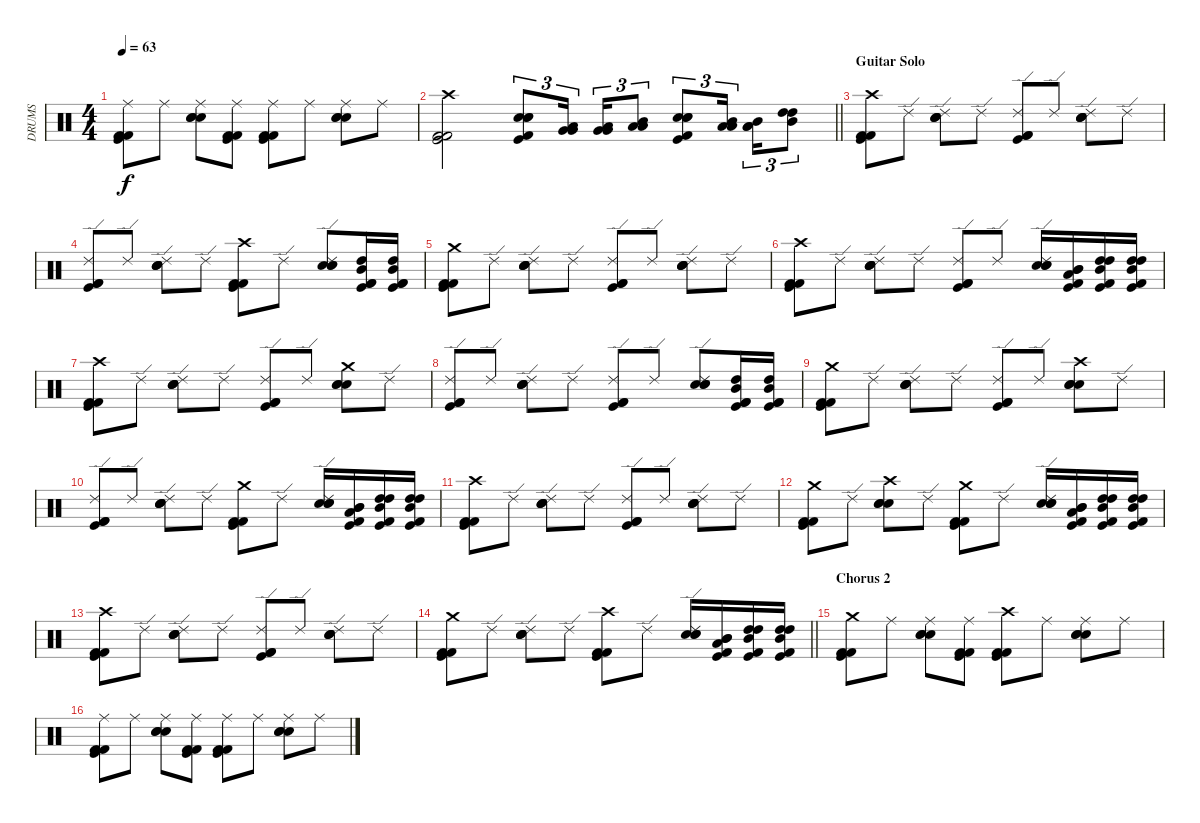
\track ("DRUMS" "DRUMS") {instrument percussion}
\staff {score}
\articulation defaults
\ts (4 4)
\tempo 63
\clef neutral
\ks c
("Ride (middle)" "Kick (hit) 2" "Kick (hit)" "Kick (hit) 2").8{dy f} "Ride (middle)".8 ("Ride (middle)" "Electric Snare (hit)" "Snare (hit) 2" "Electric Snare (hit)").8 ("Ride (middle)" "Kick (hit) 2" "Kick (hit)" "Kick (hit) 2").8 ("Ride (middle)" "Kick (hit) 2" "Kick (hit)" "Kick (hit) 2").8 "Ride (middle)".8 ("Ride (middle)" "Electric Snare (hit)" "Snare (hit) 2" "Electric Snare (hit)").8 "Ride (middle)".8 |
\barLineRight lightlight
("Crash high (hit)" "Kick (hit) 2" "Kick (hit)" "Kick (hit) 2").2 ("Electric Snare (hit)" "Snare (hit) 2" "Electric Snare (hit)" "Kick (hit)" "Kick (hit) 2").8{tu (3 2) volume 10} ("Very Low Tom (hit)" "Very Low Tom (hit)" "Low Tom (hit)").16{tu (3 2) balance 2 beam splitsecondary} ("Very Low Tom (hit)" "Very Low Tom (hit)" "Low Tom (hit)").16{tu (3 2) balance 4} ("Low Tom (hit)" "Low Tom (hit)" "Mid Tom (hit)").8{tu (3 2) balance 6} ("Electric Snare (hit)" "Snare (hit) 2" "Electric Snare (hit)" "Kick (hit)" "Kick (hit) 2").8{tu (3 2) balance 8} ("Low Tom (hit)" "Low Tom (hit)" "Mid Tom (hit)").16{tu (3 2) balance 10 beam splitsecondary} ("Low Tom (hit)" "Low Tom (hit)" "Mid Tom (hit)").16{tu (3 2) balance 12} ("Mid Tom (hit)" "High Tom (hit)" "High Tom (hit)").8{tu (3 2) balance 14} |
\section ("" "Guitar Solo")
("Crash high (hit)" "Kick (hit) 2" "Kick (hit)" "Kick (hit) 2").8{volume 8 balance 8} "Ride (edge) 2".8 ("Ride (edge) 2" "Electric Snare (hit)" "Snare (hit) 2" "Electric Snare (hit)").8 "Ride (edge) 2".8 ("Ride (edge) 2" "Kick (hit) 2" "Kick (hit)" "Kick (hit) 2").8 "Ride (edge) 2".8 ("Ride (edge) 2" "Electric Snare (hit)" "Snare (hit) 2" "Electric Snare (hit)").8 "Ride (edge) 2".8 |
("Ride (edge) 2" "Kick (hit) 2" "Kick (hit)" "Kick (hit) 2").8 "Ride (edge) 2".8 ("Ride (edge) 2" "Electric Snare (hit)" "Snare (hit) 2" "Electric Snare (hit)").8 "Ride (edge) 2".8 ("Crash high (hit)" "Kick (hit) 2" "Kick (hit)" "Kick (hit) 2").8 "Ride (edge) 2".8 ("Ride (edge) 2" "Electric Snare (hit)" "Snare (hit) 2" "Electric Snare (hit)").8 ("Mid Tom (hit)" "High Tom (hit)" "Kick (hit) 2" "Kick (hit)" "Kick (hit) 2").16{volume 10 balance 4} ("Mid Tom (hit)" "High Tom (hit)" "Kick (hit) 2" "Kick (hit)" "Kick (hit) 2").16{balance 12} |
("Crash medium (hit)" "Kick (hit) 2" "Kick (hit)" "Kick (hit) 2").8{volume 8 balance 8} "Ride (edge) 2".8 ("Ride (edge) 2" "Electric Snare (hit)" "Snare (hit) 2" "Electric Snare (hit)").8 "Ride (edge) 2".8 ("Ride (edge) 2" "Kick (hit) 2" "Kick (hit)" "Kick (hit) 2").8 "Ride (edge) 2".8 ("Ride (edge) 2" "Electric Snare (hit)" "Snare (hit) 2" "Electric Snare (hit)").8 "Ride (edge) 2".8 |
("Crash high (hit)" "Kick (hit) 2" "Kick (hit)" "Kick (hit) 2").8 "Ride (edge) 2".8 ("Ride (edge) 2" "Electric Snare (hit)" "Snare (hit) 2" "Electric Snare (hit)").8 "Ride (edge) 2".8 ("Ride (edge) 2" "Kick (hit) 2" "Kick (hit)" "Kick (hit) 2").8 "Ride (edge) 2".8 ("Ride (edge) 2" "Electric Snare (hit)" "Snare (hit) 2" "Electric Snare (hit)").16 ("Kick (hit)" "Low Tom (hit)" "Mid Tom (hit)" "Mid Tom (hit)" "Kick (hit) 2").16{volume 10 balance 4} ("Kick (hit)" "Mid Tom (hit)" "High Tom (hit)" "High Tom (hit)" "Kick (hit) 2").16{balance 8} ("Kick (hit)" "Mid Tom (hit)" "High Tom (hit)" "High Tom (hit)" "Kick (hit) 2").16{balance 12} |
("Crash high (hit)" "Kick (hit) 2" "Kick (hit)" "Kick (hit) 2").8{volume 8 balance 8} "Ride (edge) 2".8 ("Ride (edge) 2" "Electric Snare (hit)" "Snare (hit) 2" "Electric Snare (hit)").8 "Ride (edge) 2".8 ("Ride (edge) 2" "Kick (hit) 2" "Kick (hit)" "Kick (hit) 2").8 "Ride (edge) 2".8 ("Crash medium (hit)" "Electric Snare (hit)" "Snare (hit) 2" "Electric Snare (hit)").8 "Ride (edge) 2".8 |
("Ride (edge) 2" "Kick (hit) 2" "Kick (hit)" "Kick (hit) 2").8 "Ride (edge) 2".8 ("Ride (edge) 2" "Electric Snare (hit)" "Snare (hit) 2" "Electric Snare (hit)").8 "Ride (edge) 2".8 ("Ride (edge) 2" "Kick (hit) 2" "Kick (hit)" "Kick (hit) 2").8 "Ride (edge) 2".8 ("Ride (edge) 2" "Electric Snare (hit)" "Snare (hit) 2" "Electric Snare (hit)").8 ("Mid Tom (hit)" "High Tom (hit)" "Kick (hit) 2" "Kick (hit)" "Kick (hit) 2").16{volume 10 balance 4} ("Mid Tom (hit)" "High Tom (hit)" "Kick (hit) 2" "Kick (hit)" "Kick (hit) 2").16{balance 12} |
("Crash medium (hit)" "Kick (hit) 2" "Kick (hit)" "Kick (hit) 2").8{volume 8 balance 8} "Ride (edge) 2".8 ("Ride (edge) 2" "Electric Snare (hit)" "Snare (hit) 2" "Electric Snare (hit)").8 "Ride (edge) 2".8 ("Ride (edge) 2" "Kick (hit) 2" "Kick (hit)" "Kick (hit) 2").8 "Ride (edge) 2".8 ("Crash high (hit)" "Electric Snare (hit)" "Snare (hit) 2" "Electric Snare (hit)").8 "Ride (edge) 2".8 |
("Ride (edge) 2" "Kick (hit) 2" "Kick (hit)" "Kick (hit) 2").8 "Ride (edge) 2".8 ("Ride (edge) 2" "Electric Snare (hit)" "Snare (hit) 2" "Electric Snare (hit)").8 "Ride (edge) 2".8 ("Crash medium (hit)" "Kick (hit) 2" "Kick (hit)" "Kick (hit) 2").8 "Ride (edge) 2".8 ("Ride (edge) 2" "Electric Snare (hit)" "Snare (hit) 2" "Electric Snare (hit)").16 ("Kick (hit)" "Low Tom (hit)" "Mid Tom (hit)" "Mid Tom (hit)" "Kick (hit) 2").16{volume 10 balance 4} ("Kick (hit)" "Mid Tom (hit)" "High Tom (hit)" "High Tom (hit)" "Kick (hit) 2").16{balance 8} ("Kick (hit)" "Mid Tom (hit)" "High Tom (hit)" "High Tom (hit)" "Kick (hit) 2").16{balance 12} |
("Crash high (hit)" "Kick (hit) 2" "Kick (hit)" "Kick (hit) 2").8{volume 8 balance 8} "Ride (edge) 2".8 ("Ride (edge) 2" "Electric Snare (hit)" "Snare (hit) 2" "Electric Snare (hit)").8 "Ride (edge) 2".8 ("Ride (edge) 2" "Kick (hit) 2" "Kick (hit)" "Kick (hit) 2").8 "Ride (edge) 2".8 ("Ride (edge) 2" "Electric Snare (hit)" "Snare (hit) 2" "Electric Snare (hit)").8 "Ride (edge) 2".8 |
("Crash medium (hit)" "Kick (hit) 2" "Kick (hit)" "Kick (hit) 2").8 "Ride (edge) 2".8 ("Crash high (hit)" "Electric Snare (hit)" "Snare (hit) 2" "Electric Snare (hit)").8 "Ride (edge) 2".8 ("Crash medium (hit)" "Kick (hit) 2" "Kick (hit)" "Kick (hit) 2").8 "Ride (edge) 2".8 ("Ride (edge) 2" "Electric Snare (hit)" "Snare (hit) 2" "Electric Snare (hit)").16 ("Kick (hit)" "Low Tom (hit)" "Mid Tom (hit)" "Mid Tom (hit)" "Kick (hit) 2").16{volume 10 balance 4} ("Kick (hit)" "Mid Tom (hit)" "High Tom (hit)" "High Tom (hit)" "Kick (hit) 2").16{balance 8} ("Kick (hit)" "Mid Tom (hit)" "High Tom (hit)" "High Tom (hit)" "Kick (hit) 2").16{balance 12} |
("Crash high (hit)" "Kick (hit) 2" "Kick (hit)" "Kick (hit) 2").8{volume 8 balance 8} "Ride (edge) 2".8 ("Ride (edge) 2" "Electric Snare (hit)" "Snare (hit) 2" "Electric Snare (hit)").8 "Ride (edge) 2".8 ("Ride (edge) 2" "Kick (hit) 2" "Kick (hit)" "Kick (hit) 2").8 "Ride (edge) 2".8 ("Ride (edge) 2" "Electric Snare (hit)" "Snare (hit) 2" "Electric Snare (hit)").8 "Ride (edge) 2".8 |
\barLineRight lightlight
("Crash medium (hit)" "Kick (hit) 2" "Kick (hit)" "Kick (hit) 2").8 "Ride (edge) 2".8 ("Ride (edge) 2" "Electric Snare (hit)" "Snare (hit) 2" "Electric Snare (hit)").8 "Ride (edge) 2".8 ("Crash high (hit)" "Kick (hit) 2" "Kick (hit)" "Kick (hit) 2").8 "Ride (edge) 2".8 ("Ride (edge) 2" "Electric Snare (hit)" "Snare (hit) 2" "Electric Snare (hit)").16 ("Kick (hit)" "Low Tom (hit)" "Mid Tom (hit)" "Mid Tom (hit)" "Kick (hit) 2").16{volume 10 balance 4} ("Kick (hit)" "Mid Tom (hit)" "High Tom (hit)" "High Tom (hit)" "Kick (hit) 2").16{balance 8} ("Kick (hit)" "Mid Tom (hit)" "High Tom (hit)" "High Tom (hit)" "Kick (hit) 2").16{balance 12} |
\section ("" "Chorus 2")
("Crash medium (hit)" "Kick (hit) 2" "Kick (hit)" "Kick (hit) 2").8{volume 8 balance 8} "Ride (middle)".8 ("Ride (middle)" "Electric Snare (hit)" "Snare (hit) 2" "Electric Snare (hit)").8 ("Ride (middle)" "Kick (hit) 2" "Kick (hit)" "Kick (hit) 2").8 ("Crash high (hit)" "Kick (hit) 2" "Kick (hit)" "Kick (hit) 2").8 "Ride (middle)".8 ("Ride (middle)" "Electric Snare (hit)" "Snare (hit) 2" "Electric Snare (hit)").8 "Ride (middle)".8 |
("Ride (middle)" "Kick (hit) 2" "Kick (hit)" "Kick (hit) 2").8 "Ride (middle)".8 ("Ride (middle)" "Electric Snare (hit)" "Snare (hit) 2" "Electric Snare (hit)").8 ("Ride (middle)" "Kick (hit) 2" "Kick (hit)" "Kick (hit) 2").8 ("Ride (middle)" "Kick (hit) 2" "Kick (hit)" "Kick (hit) 2").8 "Ride (middle)".8 ("Ride (middle)" "Electric Snare (hit)" "Snare (hit) 2" "Electric Snare (hit)").8 "Ride (middle)".8
